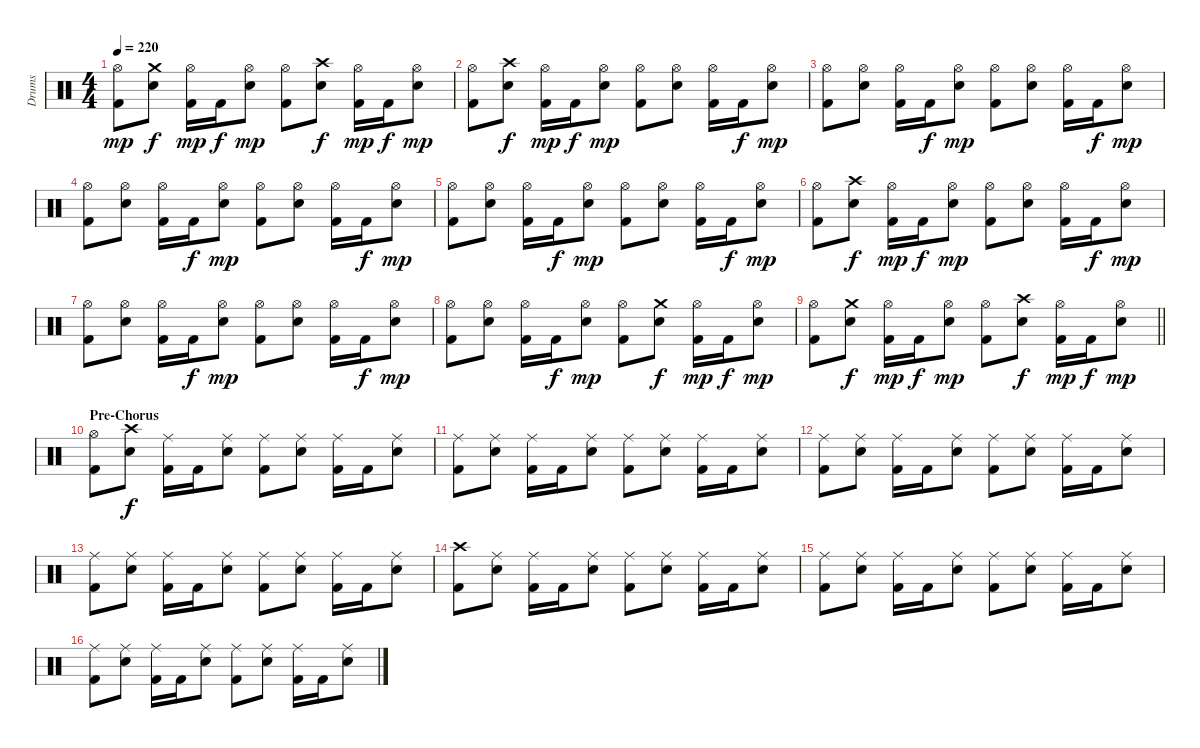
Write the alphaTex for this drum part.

\track ("Drums" "Drums") {instrument percussion}
\staff {score}
\articulation defaults
\ts (4 4)
\tempo 220
\clef neutral
\ks c
("Hi-Hat (open)" "Kick (hit) 2").8{dy mp} ("Crash medium (hit)" "Snare (hit) 2").8{dy f} ("Hi-Hat (open)" "Kick (hit) 2").16{dy mp} "Kick (hit) 2".16{dy f} ("Hi-Hat (open)" "Snare (hit) 2").8{dy mp} ("Hi-Hat (open)" "Kick (hit) 2").8 ("Crash high (hit)" "Snare (hit) 2").8{dy f} ("Hi-Hat (open)" "Kick (hit) 2").16{dy mp} "Kick (hit) 2".16{dy f} ("Hi-Hat (open)" "Snare (hit) 2").8{dy mp} |
("Hi-Hat (open)" "Kick (hit) 2").8 ("Crash high (hit)" "Snare (hit) 2").8{dy f} ("Hi-Hat (open)" "Kick (hit) 2").16{dy mp} "Kick (hit) 2".16{dy f} ("Hi-Hat (open)" "Snare (hit) 2").8{dy mp} ("Hi-Hat (open)" "Kick (hit) 2").8 ("Hi-Hat (open)" "Snare (hit) 2").8 ("Hi-Hat (open)" "Kick (hit) 2").16 "Kick (hit) 2".16{dy f} ("Hi-Hat (open)" "Snare (hit) 2").8{dy mp} |
("Hi-Hat (open)" "Kick (hit) 2").8 ("Hi-Hat (open)" "Snare (hit) 2").8 ("Hi-Hat (open)" "Kick (hit) 2").16 "Kick (hit) 2".16{dy f} ("Hi-Hat (open)" "Snare (hit) 2").8{dy mp} ("Hi-Hat (open)" "Kick (hit) 2").8 ("Hi-Hat (open)" "Snare (hit) 2").8 ("Hi-Hat (open)" "Kick (hit) 2").16 "Kick (hit) 2".16{dy f} ("Hi-Hat (open)" "Snare (hit) 2").8{dy mp} |
("Hi-Hat (open)" "Kick (hit) 2").8 ("Hi-Hat (open)" "Snare (hit) 2").8 ("Hi-Hat (open)" "Kick (hit) 2").16 "Kick (hit) 2".16{dy f} ("Hi-Hat (open)" "Snare (hit) 2").8{dy mp} ("Hi-Hat (open)" "Kick (hit) 2").8 ("Hi-Hat (open)" "Snare (hit) 2").8 ("Hi-Hat (open)" "Kick (hit) 2").16 "Kick (hit) 2".16{dy f} ("Hi-Hat (open)" "Snare (hit) 2").8{dy mp} |
("Hi-Hat (open)" "Kick (hit) 2").8 ("Hi-Hat (open)" "Snare (hit) 2").8 ("Hi-Hat (open)" "Kick (hit) 2").16 "Kick (hit) 2".16{dy f} ("Hi-Hat (open)" "Snare (hit) 2").8{dy mp} ("Hi-Hat (open)" "Kick (hit) 2").8 ("Hi-Hat (open)" "Snare (hit) 2").8 ("Hi-Hat (open)" "Kick (hit) 2").16 "Kick (hit) 2".16{dy f} ("Hi-Hat (open)" "Snare (hit) 2").8{dy mp} |
("Hi-Hat (open)" "Kick (hit) 2").8 ("Crash high (hit)" "Snare (hit) 2").8{dy f} ("Hi-Hat (open)" "Kick (hit) 2").16{dy mp} "Kick (hit) 2".16{dy f} ("Hi-Hat (open)" "Snare (hit) 2").8{dy mp} ("Hi-Hat (open)" "Kick (hit) 2").8 ("Hi-Hat (open)" "Snare (hit) 2").8 ("Hi-Hat (open)" "Kick (hit) 2").16 "Kick (hit) 2".16{dy f} ("Hi-Hat (open)" "Snare (hit) 2").8{dy mp} |
("Hi-Hat (open)" "Kick (hit) 2").8 ("Hi-Hat (open)" "Snare (hit) 2").8 ("Hi-Hat (open)" "Kick (hit) 2").16 "Kick (hit) 2".16{dy f} ("Hi-Hat (open)" "Snare (hit) 2").8{dy mp} ("Hi-Hat (open)" "Kick (hit) 2").8 ("Hi-Hat (open)" "Snare (hit) 2").8 ("Hi-Hat (open)" "Kick (hit) 2").16 "Kick (hit) 2".16{dy f} ("Hi-Hat (open)" "Snare (hit) 2").8{dy mp} |
("Hi-Hat (open)" "Kick (hit) 2").8 ("Hi-Hat (open)" "Snare (hit) 2").8 ("Hi-Hat (open)" "Kick (hit) 2").16 "Kick (hit) 2".16{dy f} ("Hi-Hat (open)" "Snare (hit) 2").8{dy mp} ("Hi-Hat (open)" "Kick (hit) 2").8 ("Crash medium (hit)" "Snare (hit) 2").8{dy f} ("Hi-Hat (open)" "Kick (hit) 2").16{dy mp} "Kick (hit) 2".16{dy f} ("Hi-Hat (open)" "Snare (hit) 2").8{dy mp} |
\barLineRight lightlight
("Hi-Hat (open)" "Kick (hit) 2").8 ("Crash medium (hit)" "Snare (hit) 2").8{dy f} ("Hi-Hat (open)" "Kick (hit) 2").16{dy mp} "Kick (hit) 2".16{dy f} ("Hi-Hat (open)" "Snare (hit) 2").8{dy mp} ("Hi-Hat (open)" "Kick (hit) 2").8 ("Crash high (hit)" "Snare (hit) 2").8{dy f} ("Hi-Hat (open)" "Kick (hit) 2").16{dy mp} "Kick (hit) 2".16{dy f} ("Hi-Hat (open)" "Snare (hit) 2").8{dy mp} |
\section ("" "Pre-Chorus")
("Hi-Hat (open)" "Kick (hit) 2").8 ("Crash high (hit)" "Snare (hit) 2").8{dy f} ("Ride (middle)" "Kick (hit) 2").16 "Kick (hit) 2".16 ("Ride (middle)" "Snare (hit) 2").8 ("Ride (middle)" "Kick (hit) 2").8 ("Ride (middle)" "Snare (hit) 2").8 ("Ride (middle)" "Kick (hit) 2").16 "Kick (hit) 2".16 ("Ride (middle)" "Snare (hit) 2").8 |
("Ride (middle)" "Kick (hit) 2").8 ("Ride (middle)" "Snare (hit) 2").8 ("Ride (middle)" "Kick (hit) 2").16 "Kick (hit) 2".16 ("Ride (middle)" "Snare (hit) 2").8 ("Ride (middle)" "Kick (hit) 2").8 ("Ride (middle)" "Snare (hit) 2").8 ("Ride (middle)" "Kick (hit) 2").16 "Kick (hit) 2".16 ("Ride (middle)" "Snare (hit) 2").8 |
("Ride (middle)" "Kick (hit) 2").8 ("Ride (middle)" "Snare (hit) 2").8 ("Ride (middle)" "Kick (hit) 2").16 "Kick (hit) 2".16 ("Ride (middle)" "Snare (hit) 2").8 ("Ride (middle)" "Kick (hit) 2").8 ("Ride (middle)" "Snare (hit) 2").8 ("Ride (middle)" "Kick (hit) 2").16 "Kick (hit) 2".16 ("Ride (middle)" "Snare (hit) 2").8 |
("Ride (middle)" "Kick (hit) 2").8 ("Ride (middle)" "Snare (hit) 2").8 ("Ride (middle)" "Kick (hit) 2").16 "Kick (hit) 2".16 ("Ride (middle)" "Snare (hit) 2").8 ("Ride (middle)" "Kick (hit) 2").8 ("Ride (middle)" "Snare (hit) 2").8 ("Ride (middle)" "Kick (hit) 2").16 "Kick (hit) 2".16 ("Ride (middle)" "Snare (hit) 2").8 |
("Crash high (hit)" "Kick (hit) 2").8 ("Ride (middle)" "Snare (hit) 2").8 ("Ride (middle)" "Kick (hit) 2").16 "Kick (hit) 2".16 ("Ride (middle)" "Snare (hit) 2").8 ("Ride (middle)" "Kick (hit) 2").8 ("Ride (middle)" "Snare (hit) 2").8 ("Ride (middle)" "Kick (hit) 2").16 "Kick (hit) 2".16 ("Ride (middle)" "Snare (hit) 2").8 |
("Ride (middle)" "Kick (hit) 2").8 ("Ride (middle)" "Snare (hit) 2").8 ("Ride (middle)" "Kick (hit) 2").16 "Kick (hit) 2".16 ("Ride (middle)" "Snare (hit) 2").8 ("Ride (middle)" "Kick (hit) 2").8 ("Ride (middle)" "Snare (hit) 2").8 ("Ride (middle)" "Kick (hit) 2").16 "Kick (hit) 2".16 ("Ride (middle)" "Snare (hit) 2").8 |
("Ride (middle)" "Kick (hit) 2").8 ("Ride (middle)" "Snare (hit) 2").8 ("Ride (middle)" "Kick (hit) 2").16 "Kick (hit) 2".16 ("Ride (middle)" "Snare (hit) 2").8 ("Ride (middle)" "Kick (hit) 2").8 ("Ride (middle)" "Snare (hit) 2").8 ("Ride (middle)" "Kick (hit) 2").16 "Kick (hit) 2".16 ("Ride (middle)" "Snare (hit) 2").8
